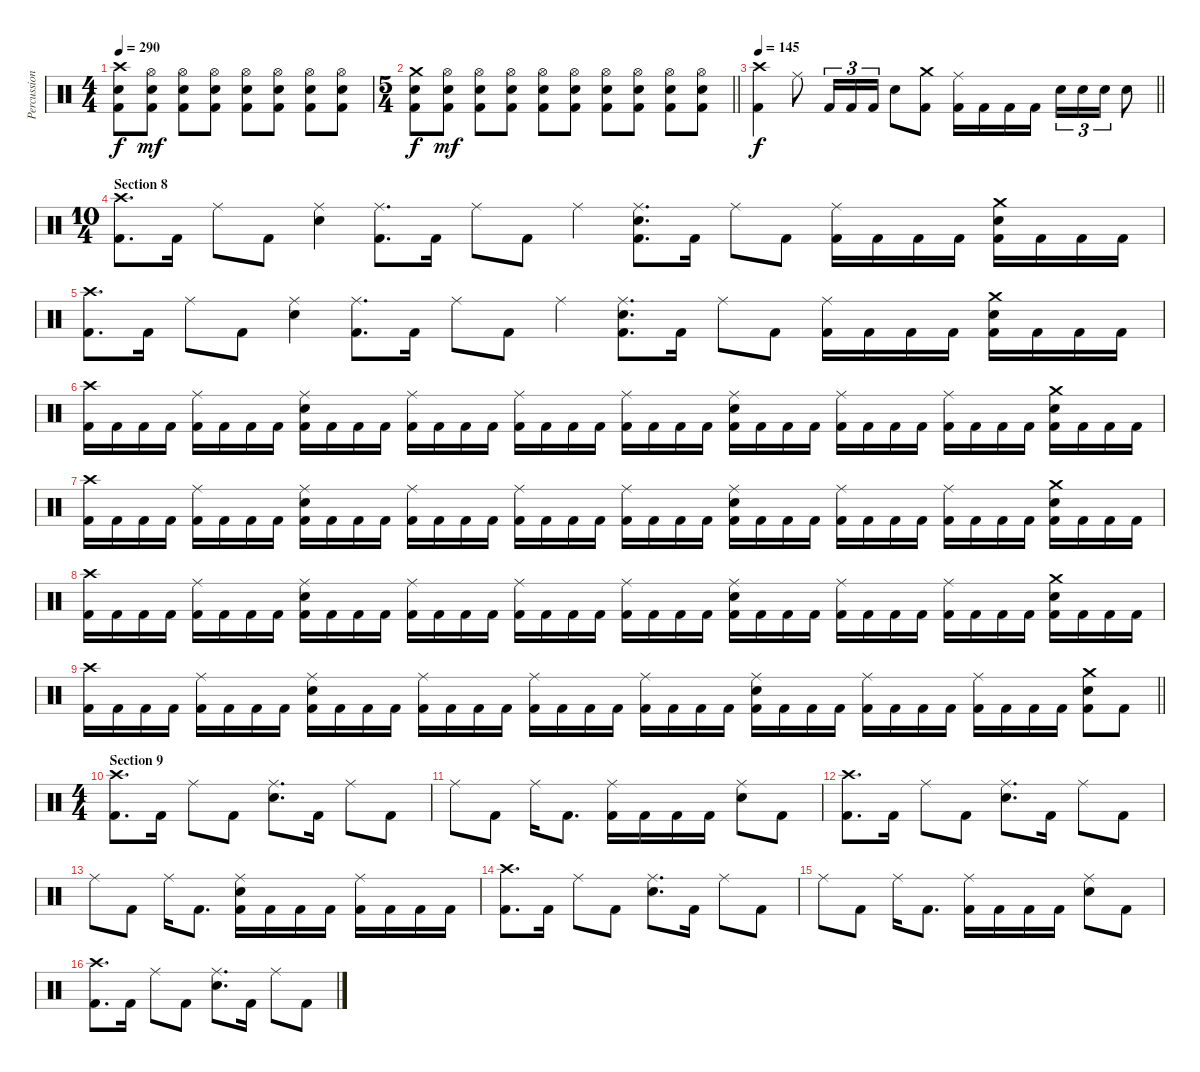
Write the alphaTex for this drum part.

\track ("Percussion" "Percussion") {instrument percussion}
\staff {score}
\articulation defaults
\ts (4 4)
\tempo 290
\clef neutral
\ks c
("Crash high (hit)" "Electric Snare (hit)" "Kick (hit) 2").8{dy f} ("Hi-Hat (open)" "Electric Snare (hit)" "Kick (hit) 2").8{dy mf} ("Hi-Hat (open)" "Electric Snare (hit)" "Kick (hit) 2").8 ("Hi-Hat (open)" "Electric Snare (hit)" "Kick (hit) 2").8 ("Hi-Hat (open)" "Electric Snare (hit)" "Kick (hit) 2").8 ("Hi-Hat (open)" "Electric Snare (hit)" "Kick (hit) 2").8 ("Hi-Hat (open)" "Electric Snare (hit)" "Kick (hit) 2").8 ("Hi-Hat (open)" "Electric Snare (hit)" "Kick (hit) 2").8 |
\ts (5 4)
\barLineRight lightlight
("Crash medium (hit)" "Electric Snare (hit)" "Kick (hit) 2").8{dy f} ("Hi-Hat (open)" "Electric Snare (hit)" "Kick (hit) 2").8{dy mf} ("Hi-Hat (open)" "Electric Snare (hit)" "Kick (hit) 2").8 ("Hi-Hat (open)" "Electric Snare (hit)" "Kick (hit) 2").8 ("Hi-Hat (open)" "Electric Snare (hit)" "Kick (hit) 2").8 ("Hi-Hat (open)" "Electric Snare (hit)" "Kick (hit) 2").8 ("Hi-Hat (open)" "Electric Snare (hit)" "Kick (hit) 2").8 ("Hi-Hat (open)" "Electric Snare (hit)" "Kick (hit) 2").8 ("Hi-Hat (open)" "Electric Snare (hit)" "Kick (hit) 2").8 ("Hi-Hat (open)" "Electric Snare (hit)" "Kick (hit) 2").8 |
\section ("" "")
\tempo 145
\barLineRight lightlight
("Crash high (hit)" "Kick (hit) 2").4{dy f} "Ride (middle)".8 "Kick (hit) 2".16{tu (3 2)} "Kick (hit) 2".16{tu (3 2)} "Kick (hit) 2".16{tu (3 2)} "Electric Snare (hit)".8 ("Crash medium (hit)" "Kick (hit) 2").8 ("Ride (middle)" "Kick (hit) 2").16 "Kick (hit) 2".16 "Kick (hit) 2".16 "Kick (hit) 2".16 "Electric Snare (hit)".16{tu (3 2)} "Electric Snare (hit)".16{tu (3 2)} "Electric Snare (hit)".16{tu (3 2)} "Electric Snare (hit)".8 |
\ts (10 4)
\section ("" "Section 8")
("Crash high (hit)" "Kick (hit) 2").8{d} "Kick (hit) 2".16 "Ride (middle)".8 "Kick (hit) 2".8 ("Ride (middle)" "Electric Snare (hit)").4 ("Ride (middle)" "Kick (hit) 2").8{d} "Kick (hit) 2".16 "Ride (middle)".8 "Kick (hit) 2".8 "Ride (middle)".4 ("Ride (middle)" "Electric Snare (hit)" "Kick (hit) 2").8{d} "Kick (hit) 2".16 "Ride (middle)".8 "Kick (hit) 2".8 ("Ride (middle)" "Kick (hit) 2").16 "Kick (hit) 2".16 "Kick (hit) 2".16 "Kick (hit) 2".16 ("Crash medium (hit)" "Electric Snare (hit)" "Kick (hit) 2").16 "Kick (hit) 2".16 "Kick (hit) 2".16 "Kick (hit) 2".16 |
("Crash high (hit)" "Kick (hit) 2").8{d} "Kick (hit) 2".16 "Ride (middle)".8 "Kick (hit) 2".8 ("Ride (middle)" "Electric Snare (hit)").4 ("Ride (middle)" "Kick (hit) 2").8{d} "Kick (hit) 2".16 "Ride (middle)".8 "Kick (hit) 2".8 "Ride (middle)".4 ("Ride (middle)" "Electric Snare (hit)" "Kick (hit) 2").8{d} "Kick (hit) 2".16 "Ride (middle)".8 "Kick (hit) 2".8 ("Ride (middle)" "Kick (hit) 2").16 "Kick (hit) 2".16 "Kick (hit) 2".16 "Kick (hit) 2".16 ("Crash medium (hit)" "Electric Snare (hit)" "Kick (hit) 2").16 "Kick (hit) 2".16 "Kick (hit) 2".16 "Kick (hit) 2".16 |
("Crash high (hit)" "Kick (hit) 2").16 "Kick (hit) 2".16 "Kick (hit) 2".16 "Kick (hit) 2".16 ("Ride (middle)" "Kick (hit) 2").16 "Kick (hit) 2".16 "Kick (hit) 2".16 "Kick (hit) 2".16 ("Ride (middle)" "Electric Snare (hit)" "Kick (hit) 2").16 "Kick (hit) 2".16 "Kick (hit) 2".16 "Kick (hit) 2".16 ("Ride (middle)" "Kick (hit) 2").16 "Kick (hit) 2".16 "Kick (hit) 2".16 "Kick (hit) 2".16 ("Ride (middle)" "Kick (hit) 2").16 "Kick (hit) 2".16 "Kick (hit) 2".16 "Kick (hit) 2".16 ("Ride (middle)" "Kick (hit) 2").16 "Kick (hit) 2".16 "Kick (hit) 2".16 "Kick (hit) 2".16 ("Ride (middle)" "Electric Snare (hit)" "Kick (hit) 2").16 "Kick (hit) 2".16 "Kick (hit) 2".16 "Kick (hit) 2".16 ("Ride (middle)" "Kick (hit) 2").16 "Kick (hit) 2".16 "Kick (hit) 2".16 "Kick (hit) 2".16 ("Ride (middle)" "Kick (hit) 2").16 "Kick (hit) 2".16 "Kick (hit) 2".16 "Kick (hit) 2".16 ("Crash medium (hit)" "Electric Snare (hit)" "Kick (hit) 2").16 "Kick (hit) 2".16 "Kick (hit) 2".16 "Kick (hit) 2".16 |
("Crash high (hit)" "Kick (hit) 2").16 "Kick (hit) 2".16 "Kick (hit) 2".16 "Kick (hit) 2".16 ("Ride (middle)" "Kick (hit) 2").16 "Kick (hit) 2".16 "Kick (hit) 2".16 "Kick (hit) 2".16 ("Ride (middle)" "Electric Snare (hit)" "Kick (hit) 2").16 "Kick (hit) 2".16 "Kick (hit) 2".16 "Kick (hit) 2".16 ("Ride (middle)" "Kick (hit) 2").16 "Kick (hit) 2".16 "Kick (hit) 2".16 "Kick (hit) 2".16 ("Ride (middle)" "Kick (hit) 2").16 "Kick (hit) 2".16 "Kick (hit) 2".16 "Kick (hit) 2".16 ("Ride (middle)" "Kick (hit) 2").16 "Kick (hit) 2".16 "Kick (hit) 2".16 "Kick (hit) 2".16 ("Ride (middle)" "Electric Snare (hit)" "Kick (hit) 2").16 "Kick (hit) 2".16 "Kick (hit) 2".16 "Kick (hit) 2".16 ("Ride (middle)" "Kick (hit) 2").16 "Kick (hit) 2".16 "Kick (hit) 2".16 "Kick (hit) 2".16 ("Ride (middle)" "Kick (hit) 2").16 "Kick (hit) 2".16 "Kick (hit) 2".16 "Kick (hit) 2".16 ("Crash medium (hit)" "Electric Snare (hit)" "Kick (hit) 2").16 "Kick (hit) 2".16 "Kick (hit) 2".16 "Kick (hit) 2".16 |
("Crash high (hit)" "Kick (hit) 2").16 "Kick (hit) 2".16 "Kick (hit) 2".16 "Kick (hit) 2".16 ("Ride (middle)" "Kick (hit) 2").16 "Kick (hit) 2".16 "Kick (hit) 2".16 "Kick (hit) 2".16 ("Ride (middle)" "Electric Snare (hit)" "Kick (hit) 2").16 "Kick (hit) 2".16 "Kick (hit) 2".16 "Kick (hit) 2".16 ("Ride (middle)" "Kick (hit) 2").16 "Kick (hit) 2".16 "Kick (hit) 2".16 "Kick (hit) 2".16 ("Ride (middle)" "Kick (hit) 2").16 "Kick (hit) 2".16 "Kick (hit) 2".16 "Kick (hit) 2".16 ("Ride (middle)" "Kick (hit) 2").16 "Kick (hit) 2".16 "Kick (hit) 2".16 "Kick (hit) 2".16 ("Ride (middle)" "Electric Snare (hit)" "Kick (hit) 2").16 "Kick (hit) 2".16 "Kick (hit) 2".16 "Kick (hit) 2".16 ("Ride (middle)" "Kick (hit) 2").16 "Kick (hit) 2".16 "Kick (hit) 2".16 "Kick (hit) 2".16 ("Ride (middle)" "Kick (hit) 2").16 "Kick (hit) 2".16 "Kick (hit) 2".16 "Kick (hit) 2".16 ("Crash medium (hit)" "Electric Snare (hit)" "Kick (hit) 2").16 "Kick (hit) 2".16 "Kick (hit) 2".16 "Kick (hit) 2".16 |
\barLineRight lightlight
("Crash high (hit)" "Kick (hit) 2").16 "Kick (hit) 2".16 "Kick (hit) 2".16 "Kick (hit) 2".16 ("Ride (middle)" "Kick (hit) 2").16 "Kick (hit) 2".16 "Kick (hit) 2".16 "Kick (hit) 2".16 ("Ride (middle)" "Electric Snare (hit)" "Kick (hit) 2").16 "Kick (hit) 2".16 "Kick (hit) 2".16 "Kick (hit) 2".16 ("Ride (middle)" "Kick (hit) 2").16 "Kick (hit) 2".16 "Kick (hit) 2".16 "Kick (hit) 2".16 ("Ride (middle)" "Kick (hit) 2").16 "Kick (hit) 2".16 "Kick (hit) 2".16 "Kick (hit) 2".16 ("Ride (middle)" "Kick (hit) 2").16 "Kick (hit) 2".16 "Kick (hit) 2".16 "Kick (hit) 2".16 ("Ride (middle)" "Electric Snare (hit)" "Kick (hit) 2").16 "Kick (hit) 2".16 "Kick (hit) 2".16 "Kick (hit) 2".16 ("Ride (middle)" "Kick (hit) 2").16 "Kick (hit) 2".16 "Kick (hit) 2".16 "Kick (hit) 2".16 ("Ride (middle)" "Kick (hit) 2").16 "Kick (hit) 2".16 "Kick (hit) 2".16 "Kick (hit) 2".16 ("Crash medium (hit)" "Electric Snare (hit)" "Kick (hit) 2").8 "Kick (hit) 2".8 |
\ts (4 4)
\section ("" "Section 9")
("Crash high (hit)" "Kick (hit) 2").8{d} "Kick (hit) 2".16 "Ride (middle)".8 "Kick (hit) 2".8 ("Ride (middle)" "Electric Snare (hit)").8{d} "Kick (hit) 2".16 "Ride (middle)".8 "Kick (hit) 2".8 |
"Ride (middle)".8 "Kick (hit) 2".8 "Ride (middle)".16 "Kick (hit) 2".8{d} ("Ride (middle)" "Kick (hit) 2").16 "Kick (hit) 2".16 "Kick (hit) 2".16 "Kick (hit) 2".16 ("Ride (middle)" "Electric Snare (hit)").8 "Kick (hit) 2".8 |
("Crash high (hit)" "Kick (hit) 2").8{d} "Kick (hit) 2".16 "Ride (middle)".8 "Kick (hit) 2".8 ("Ride (middle)" "Electric Snare (hit)").8{d} "Kick (hit) 2".16 "Ride (middle)".8 "Kick (hit) 2".8 |
"Ride (middle)".8 "Kick (hit) 2".8 "Ride (middle)".16 "Kick (hit) 2".8{d} ("Ride (middle)" "Electric Snare (hit)" "Kick (hit) 2").16 "Kick (hit) 2".16 "Kick (hit) 2".16 "Kick (hit) 2".16 ("Ride (middle)" "Kick (hit) 2").16 "Kick (hit) 2".16 "Kick (hit) 2".16 "Kick (hit) 2".16 |
("Crash high (hit)" "Kick (hit) 2").8{d} "Kick (hit) 2".16 "Ride (middle)".8 "Kick (hit) 2".8 ("Ride (middle)" "Electric Snare (hit)").8{d} "Kick (hit) 2".16 "Ride (middle)".8 "Kick (hit) 2".8 |
"Ride (middle)".8 "Kick (hit) 2".8 "Ride (middle)".16 "Kick (hit) 2".8{d} ("Ride (middle)" "Kick (hit) 2").16 "Kick (hit) 2".16 "Kick (hit) 2".16 "Kick (hit) 2".16 ("Ride (middle)" "Electric Snare (hit)").8 "Kick (hit) 2".8 |
("Crash high (hit)" "Kick (hit) 2").8{d} "Kick (hit) 2".16 "Ride (middle)".8 "Kick (hit) 2".8 ("Ride (middle)" "Electric Snare (hit)").8{d} "Kick (hit) 2".16 "Ride (middle)".8 "Kick (hit) 2".8
